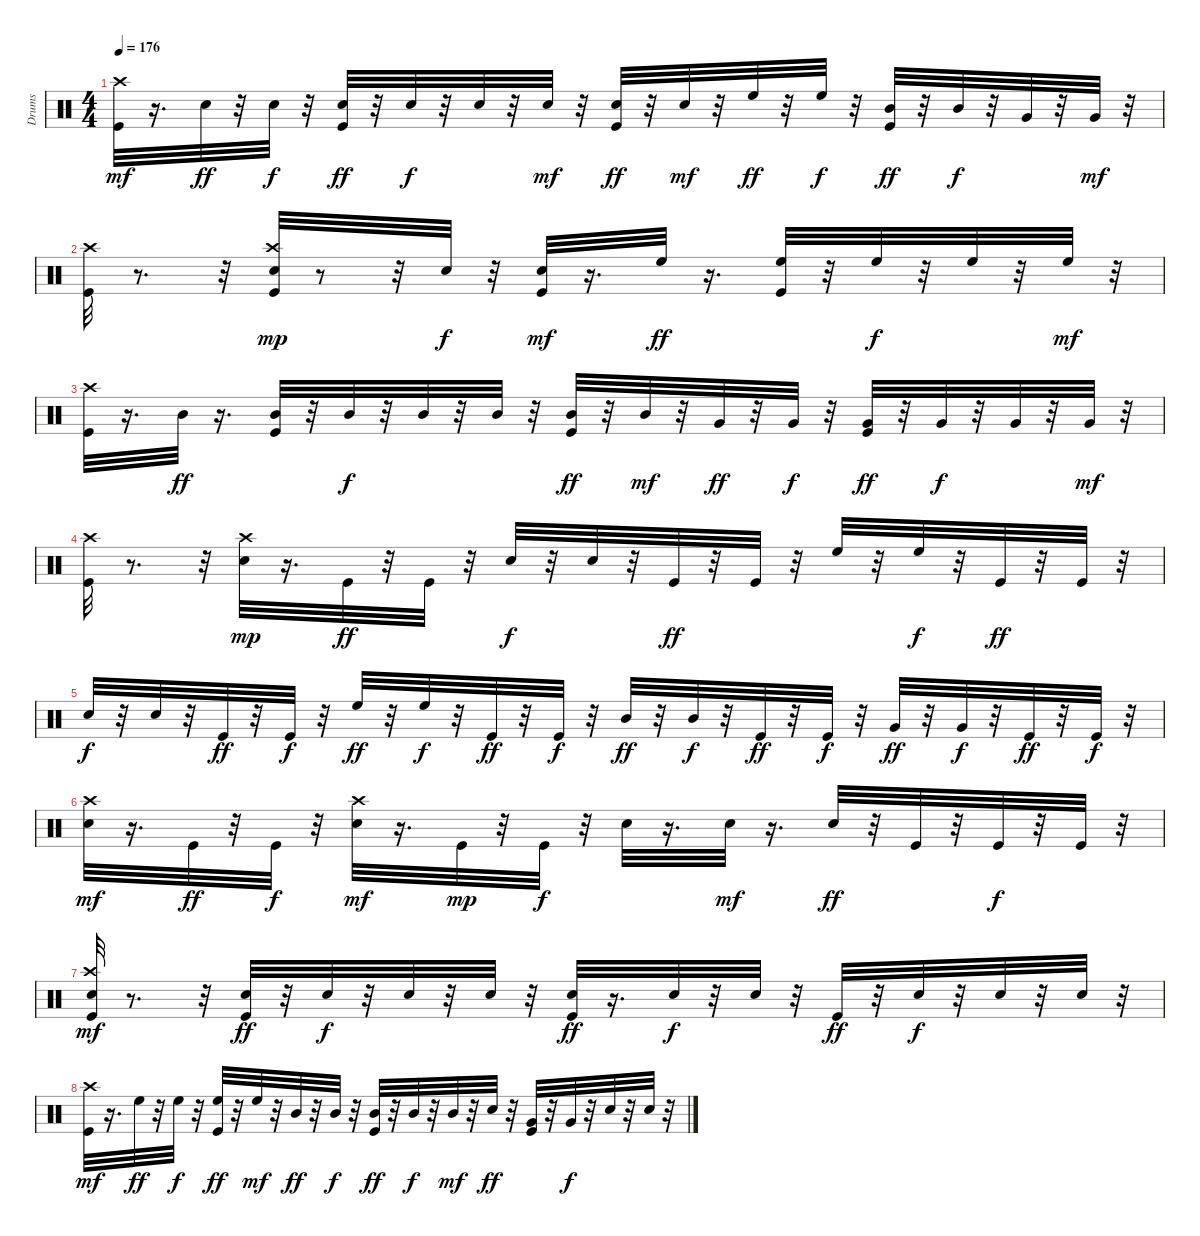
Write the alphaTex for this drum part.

\track ("Drums" "Drums") {instrument percussion}
\staff {score}
\articulation defaults
\ts (4 4)
\tempo 176
\clef neutral
\ks c
("Kick (hit)" "Crash high (hit)").32{dy mf} r.16{d} "Snare (hit) 2".32{dy ff} r.32 "Snare (hit) 2".32{dy f} r.32 ("Kick (hit)" "Snare (hit) 2").32{dy ff} r.32 "Snare (hit) 2".32{dy f} r.32 "Snare (hit) 2".32 r.32 "Snare (hit) 2".32{dy mf} r.32 ("Kick (hit)" "Snare (hit) 2").32{dy ff} r.32 "Snare (hit) 2".32{dy mf} r.32 "High Floor Tom (hit)".32{dy ff} r.32 "High Floor Tom (hit)".32{dy f} r.32 ("Kick (hit)" "Mid Tom (hit)").32{dy ff} r.32 "Mid Tom (hit)".32{dy f} r.32 "Very Low Tom (hit)".32 r.32 "Very Low Tom (hit)".32{dy mf} r.32 |
("Kick (hit)" "Crash high (hit)").32 r.8{d} r.32 ("Kick (hit)" "Snare (hit) 2" "Crash high (hit)").32{dy mp} r.8 r.32 "Snare (hit) 2".32{dy f} r.32 ("Kick (hit)" "Snare (hit) 2").32{dy mf} r.16{d} "High Floor Tom (hit)".32{dy ff} r.16{d} ("Kick (hit)" "High Floor Tom (hit)").32 r.32 "High Floor Tom (hit)".32{dy f} r.32 "High Floor Tom (hit)".32 r.32 "High Floor Tom (hit)".32{dy mf} r.32 |
("Kick (hit)" "Crash high (hit)").32 r.16{d} "Mid Tom (hit)".32{dy ff} r.16{d} ("Kick (hit)" "Mid Tom (hit)").32 r.32 "Mid Tom (hit)".32{dy f} r.32 "Mid Tom (hit)".32 r.32 "Mid Tom (hit)".32 r.32 ("Kick (hit)" "Mid Tom (hit)").32{dy ff} r.32 "Mid Tom (hit)".32{dy mf} r.32 "Very Low Tom (hit)".32{dy ff} r.32 "Very Low Tom (hit)".32{dy f} r.32 ("Kick (hit)" "Very Low Tom (hit)").32{dy ff} r.32 "Very Low Tom (hit)".32{dy f} r.32 "Very Low Tom (hit)".32 r.32 "Very Low Tom (hit)".32{dy mf} r.32 |
("Kick (hit)" "Crash high (hit)").32 r.8{d} r.32 ("Snare (hit) 2" "Crash high (hit)").32{dy mp} r.16{d} "Kick (hit)".32{dy ff} r.32 "Kick (hit)".32 r.32 "Snare (hit) 2".32{dy f} r.32 "Snare (hit) 2".32 r.32 "Kick (hit)".32{dy ff} r.32 "Kick (hit)".32 r.32 "High Floor Tom (hit)".32 r.32 "High Floor Tom (hit)".32{dy f} r.32 "Kick (hit)".32{dy ff} r.32 "Kick (hit)".32 r.32 |
"Snare (hit) 2".32{dy f} r.32 "Snare (hit) 2".32 r.32 "Kick (hit)".32{dy ff} r.32 "Kick (hit)".32{dy f} r.32 "High Floor Tom (hit)".32{dy ff} r.32 "High Floor Tom (hit)".32{dy f} r.32 "Kick (hit)".32{dy ff} r.32 "Kick (hit)".32{dy f} r.32 "Mid Tom (hit)".32{dy ff} r.32 "Mid Tom (hit)".32{dy f} r.32 "Kick (hit)".32{dy ff} r.32 "Kick (hit)".32{dy f} r.32 "Very Low Tom (hit)".32{dy ff} r.32 "Very Low Tom (hit)".32{dy f} r.32 "Kick (hit)".32{dy ff} r.32 "Kick (hit)".32{dy f} r.32 |
("Snare (hit) 2" "Crash high (hit)").32{dy mf} r.16{d} "Kick (hit)".32{dy ff} r.32 "Kick (hit)".32{dy f} r.32 ("Snare (hit) 2" "Crash high (hit)").32{dy mf} r.16{d} "Kick (hit)".32{dy mp} r.32 "Kick (hit)".32{dy f} r.32 "Snare (hit) 2".32 r.16{d} "Snare (hit) 2".32{dy mf} r.16{d} "Snare (hit) 2".32{dy ff} r.32 "Kick (hit)".32 r.32 "Kick (hit)".32{dy f} r.32 "Kick (hit)".32 r.32 |
("Kick (hit)" "Snare (hit) 2" "Crash high (hit)").32{dy mf} r.8{d} r.32 ("Kick (hit)" "Snare (hit) 2").32{dy ff} r.32 "Snare (hit) 2".32{dy f} r.32 "Snare (hit) 2".32 r.32 "Snare (hit) 2".32 r.32 ("Kick (hit)" "Snare (hit) 2").32{dy ff} r.16{d} "Snare (hit) 2".32{dy f} r.32 "Snare (hit) 2".32 r.32 "Kick (hit)".32{dy ff} r.32 "Snare (hit) 2".32{dy f} r.32 "Snare (hit) 2".32 r.32 "Snare (hit) 2".32 r.32 |
("Kick (hit)" "Crash high (hit)").32{dy mf} r.16{d} "High Floor Tom (hit)".32{dy ff} r.32 "High Floor Tom (hit)".32{dy f} r.32 ("Kick (hit)" "High Floor Tom (hit)").32{dy ff} r.32 "High Floor Tom (hit)".32{dy mf} r.32 "Mid Tom (hit)".32{dy ff} r.32 "Mid Tom (hit)".32{dy f} r.32 ("Kick (hit)" "Mid Tom (hit)").32{dy ff} r.32 "Mid Tom (hit)".32{dy f} r.32 "Mid Tom (hit)".32{dy mf} r.32 "Snare (hit) 2".32{dy ff} r.32 ("Kick (hit)" "Very Low Tom (hit)").32 r.32 "Very Low Tom (hit)".32{dy f} r.32 "Snare (hit) 2".32 r.32 "Snare (hit) 2".32 r.32
